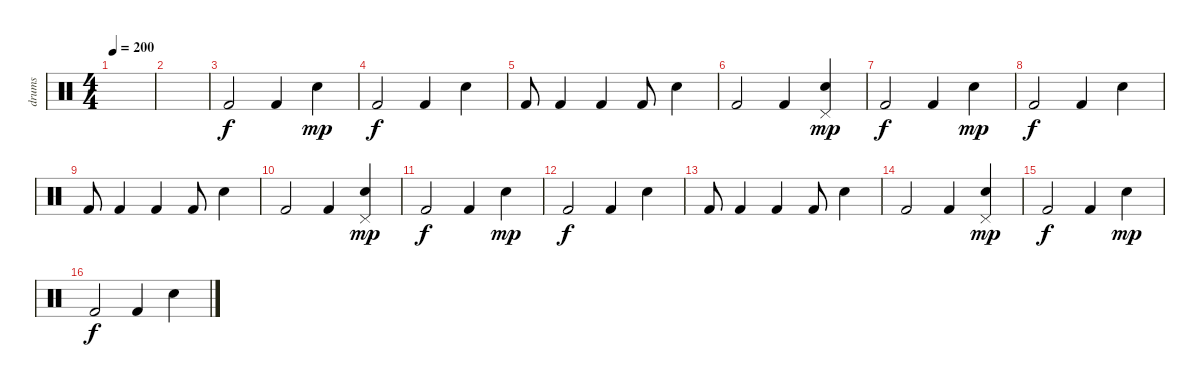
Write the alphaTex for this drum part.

\track ("drums" "drums") {instrument percussion}
\staff {score}
\articulation defaults
\ts (4 4)
\tempo 200
\clef neutral
\ks c
|
|
"Kick (hit) 2".2 "Kick (hit) 2".4 "Electric Snare (hit)".4{dy mp} |
"Kick (hit) 2".2{dy f} "Kick (hit) 2".4 "Electric Snare (hit)".4 |
"Kick (hit) 2".8 "Kick (hit) 2".4 "Kick (hit) 2".4 "Kick (hit) 2".8 "Electric Snare (hit)".4 |
"Kick (hit) 2".2 "Kick (hit) 2".4 ("Pedal Hi-Hat (hit)" "Electric Snare (hit)").4{dy mp} |
"Kick (hit) 2".2{dy f} "Kick (hit) 2".4 "Electric Snare (hit)".4{dy mp} |
"Kick (hit) 2".2{dy f} "Kick (hit) 2".4 "Electric Snare (hit)".4 |
"Kick (hit) 2".8 "Kick (hit) 2".4 "Kick (hit) 2".4 "Kick (hit) 2".8 "Electric Snare (hit)".4 |
"Kick (hit) 2".2 "Kick (hit) 2".4 ("Pedal Hi-Hat (hit)" "Electric Snare (hit)").4{dy mp} |
"Kick (hit) 2".2{dy f} "Kick (hit) 2".4 "Electric Snare (hit)".4{dy mp} |
"Kick (hit) 2".2{dy f} "Kick (hit) 2".4 "Electric Snare (hit)".4 |
"Kick (hit) 2".8 "Kick (hit) 2".4 "Kick (hit) 2".4 "Kick (hit) 2".8 "Electric Snare (hit)".4 |
"Kick (hit) 2".2 "Kick (hit) 2".4 ("Pedal Hi-Hat (hit)" "Electric Snare (hit)").4{dy mp} |
"Kick (hit) 2".2{dy f} "Kick (hit) 2".4 "Electric Snare (hit)".4{dy mp} |
"Kick (hit) 2".2{dy f} "Kick (hit) 2".4 "Electric Snare (hit)".4
